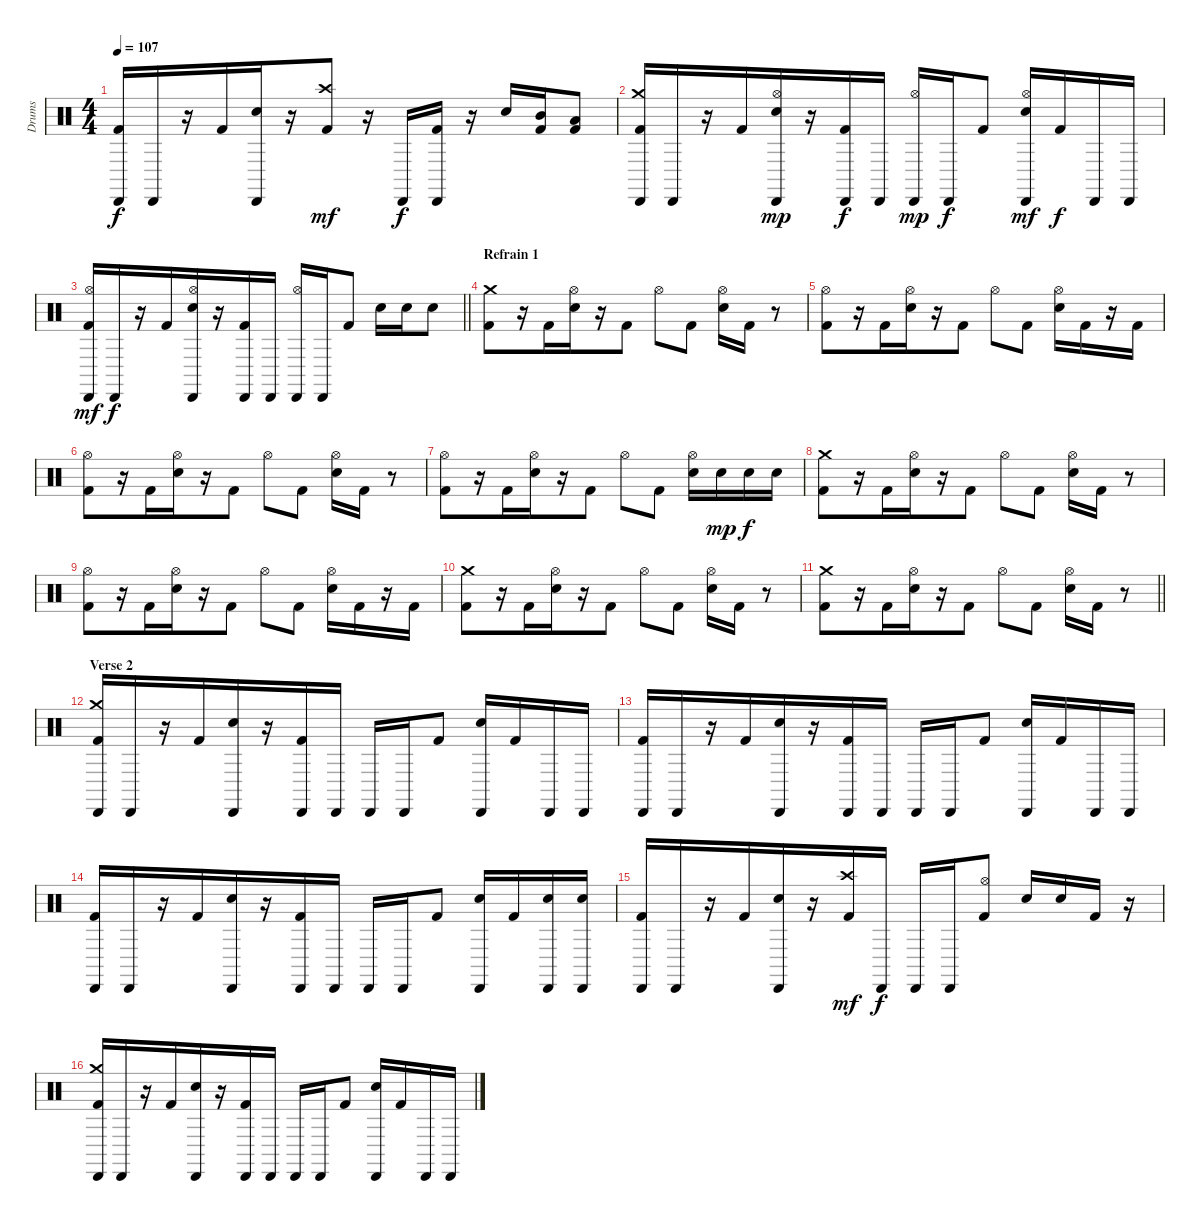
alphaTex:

\track ("Drums" "Drums") {instrument percussion}
\staff {score}
\articulation defaults
\ts (4 4)
\tempo 107
\clef neutral
\ks c
("Cabasa (hit)" "Kick (hit) 2").16{dy f} "Cabasa (hit)".16 r.16 "Kick (hit) 2".16{beam merge} ("Cabasa (hit)" "Electric Snare (hit)").16 r.16 ("Crash high (hit)" "Kick (hit) 2").8{dy mf} r.16 "Cabasa (hit)".16{dy f} ("Cabasa (hit)" "Kick (hit) 2").16 r.16 "Electric Snare (hit)".16 ("Mid Tom (hit)" "Kick (hit) 2").16 ("Low Tom (hit)" "Kick (hit) 2").8 |
("Crash medium (hit)" "Cabasa (hit)" "Kick (hit) 2").16 "Cabasa (hit)".16 r.16 "Kick (hit) 2".16{beam merge} ("Hi-Hat (open)" "Cabasa (hit)" "Electric Snare (hit)").16{dy mp} r.16 ("Cabasa (hit)" "Kick (hit) 2").16{dy f} "Cabasa (hit)".16 ("Hi-Hat (open)" "Cabasa (hit)").16{dy mp} "Cabasa (hit)".16{dy f} "Kick (hit) 2".8 ("Hi-Hat (open)" "Cabasa (hit)" "Electric Snare (hit)").16{dy mf} "Kick (hit) 2".16{dy f} "Cabasa (hit)".16 "Cabasa (hit)".16 |
\barLineRight lightlight
("Hi-Hat (open)" "Cabasa (hit)" "Kick (hit) 2").16{dy mf} "Cabasa (hit)".16{dy f} r.16 "Kick (hit) 2".16{beam merge} ("Hi-Hat (open)" "Cabasa (hit)" "Electric Snare (hit)").16 r.16 ("Cabasa (hit)" "Kick (hit) 2").16 "Cabasa (hit)".16 ("Hi-Hat (open)" "Cabasa (hit)").16 "Cabasa (hit)".16 "Kick (hit) 2".8 "Electric Snare (hit)".16 "Electric Snare (hit)".16 "Electric Snare (hit)".8 |
\section ("" "Refrain 1")
("Crash medium (hit)" "Kick (hit) 2").8 r.16 "Kick (hit) 2".16{beam merge} ("Hi-Hat (open)" "Electric Snare (hit)").16 r.16 "Kick (hit) 2".8 "Hi-Hat (open)".8 "Kick (hit) 2".8 ("Hi-Hat (open)" "Electric Snare (hit)").16 "Kick (hit) 2".16 r.8 |
("Hi-Hat (open)" "Kick (hit) 2").8 r.16 "Kick (hit) 2".16{beam merge} ("Hi-Hat (open)" "Electric Snare (hit)").16 r.16 "Kick (hit) 2".8 "Hi-Hat (open)".8 "Kick (hit) 2".8 ("Hi-Hat (open)" "Electric Snare (hit)").16 "Kick (hit) 2".16 r.16 "Kick (hit) 2".16 |
("Hi-Hat (open)" "Kick (hit) 2").8 r.16 "Kick (hit) 2".16{beam merge} ("Hi-Hat (open)" "Electric Snare (hit)").16 r.16 "Kick (hit) 2".8 "Hi-Hat (open)".8 "Kick (hit) 2".8 ("Hi-Hat (open)" "Electric Snare (hit)").16 "Kick (hit) 2".16 r.8 |
("Hi-Hat (open)" "Kick (hit) 2").8 r.16 "Kick (hit) 2".16{beam merge} ("Hi-Hat (open)" "Electric Snare (hit)").16 r.16 "Kick (hit) 2".8 "Hi-Hat (open)".8 "Kick (hit) 2".8 ("Hi-Hat (open)" "Electric Snare (hit)").16 "Electric Snare (hit)".16{dy mp} "Electric Snare (hit)".16{dy f} "Electric Snare (hit)".16 |
("Crash medium (hit)" "Kick (hit) 2").8 r.16 "Kick (hit) 2".16{beam merge} ("Hi-Hat (open)" "Electric Snare (hit)").16 r.16 "Kick (hit) 2".8 "Hi-Hat (open)".8 "Kick (hit) 2".8 ("Hi-Hat (open)" "Electric Snare (hit)").16 "Kick (hit) 2".16 r.8 |
("Hi-Hat (open)" "Kick (hit) 2").8 r.16 "Kick (hit) 2".16{beam merge} ("Hi-Hat (open)" "Electric Snare (hit)").16 r.16 "Kick (hit) 2".8 "Hi-Hat (open)".8 "Kick (hit) 2".8 ("Hi-Hat (open)" "Electric Snare (hit)").16 "Kick (hit) 2".16 r.16 "Kick (hit) 2".16 |
("Crash medium (hit)" "Kick (hit) 2").8 r.16 "Kick (hit) 2".16{beam merge} ("Hi-Hat (open)" "Electric Snare (hit)").16 r.16 "Kick (hit) 2".8 "Hi-Hat (open)".8 "Kick (hit) 2".8 ("Hi-Hat (open)" "Electric Snare (hit)").16 "Kick (hit) 2".16 r.8 |
\barLineRight lightlight
("Crash medium (hit)" "Kick (hit) 2").8 r.16 "Kick (hit) 2".16{beam merge} ("Hi-Hat (open)" "Electric Snare (hit)").16 r.16 "Kick (hit) 2".8 "Hi-Hat (open)".8 "Kick (hit) 2".8 ("Hi-Hat (open)" "Electric Snare (hit)").16 "Kick (hit) 2".16 r.8 |
\section ("" "Verse 2")
("Crash medium (hit)" "Cabasa (hit)" "Kick (hit) 2").16 "Cabasa (hit)".16 r.16 "Kick (hit) 2".16{beam merge} ("Cabasa (hit)" "Electric Snare (hit)").16 r.16 ("Cabasa (hit)" "Kick (hit) 2").16 "Cabasa (hit)".16 "Cabasa (hit)".16 "Cabasa (hit)".16 "Kick (hit) 2".8 ("Cabasa (hit)" "Electric Snare (hit)").16 "Kick (hit) 2".16 "Cabasa (hit)".16 "Cabasa (hit)".16 |
("Cabasa (hit)" "Kick (hit) 2").16 "Cabasa (hit)".16 r.16 "Kick (hit) 2".16{beam merge} ("Cabasa (hit)" "Electric Snare (hit)").16 r.16 ("Cabasa (hit)" "Kick (hit) 2").16 "Cabasa (hit)".16 "Cabasa (hit)".16 "Cabasa (hit)".16 "Kick (hit) 2".8 ("Cabasa (hit)" "Electric Snare (hit)").16 "Kick (hit) 2".16 "Cabasa (hit)".16 "Cabasa (hit)".16 |
("Cabasa (hit)" "Kick (hit) 2").16 "Cabasa (hit)".16 r.16 "Kick (hit) 2".16{beam merge} ("Cabasa (hit)" "Electric Snare (hit)").16 r.16 ("Cabasa (hit)" "Kick (hit) 2").16 "Cabasa (hit)".16 "Cabasa (hit)".16 "Cabasa (hit)".16 "Kick (hit) 2".8 ("Cabasa (hit)" "Electric Snare (hit)").16 "Kick (hit) 2".16 ("Cabasa (hit)" "Electric Snare (hit)").16 ("Cabasa (hit)" "Electric Snare (hit)").16 |
("Cabasa (hit)" "Kick (hit) 2").16 "Cabasa (hit)".16 r.16 "Kick (hit) 2".16{beam merge} ("Cabasa (hit)" "Electric Snare (hit)").16 r.16 ("Crash high (hit)" "Kick (hit) 2").16{dy mf} "Cabasa (hit)".16{dy f} "Cabasa (hit)".16 "Cabasa (hit)".16 ("Hi-Hat (open)" "Kick (hit) 2").8 "Electric Snare (hit)".16 "Electric Snare (hit)".16 "Kick (hit) 2".16 r.16 |
("Crash medium (hit)" "Cabasa (hit)" "Kick (hit) 2").16 "Cabasa (hit)".16 r.16 "Kick (hit) 2".16{beam merge} ("Cabasa (hit)" "Electric Snare (hit)").16 r.16 ("Cabasa (hit)" "Kick (hit) 2").16 "Cabasa (hit)".16 "Cabasa (hit)".16 "Cabasa (hit)".16 "Kick (hit) 2".8 ("Cabasa (hit)" "Electric Snare (hit)").16 "Kick (hit) 2".16 "Cabasa (hit)".16 "Cabasa (hit)".16
